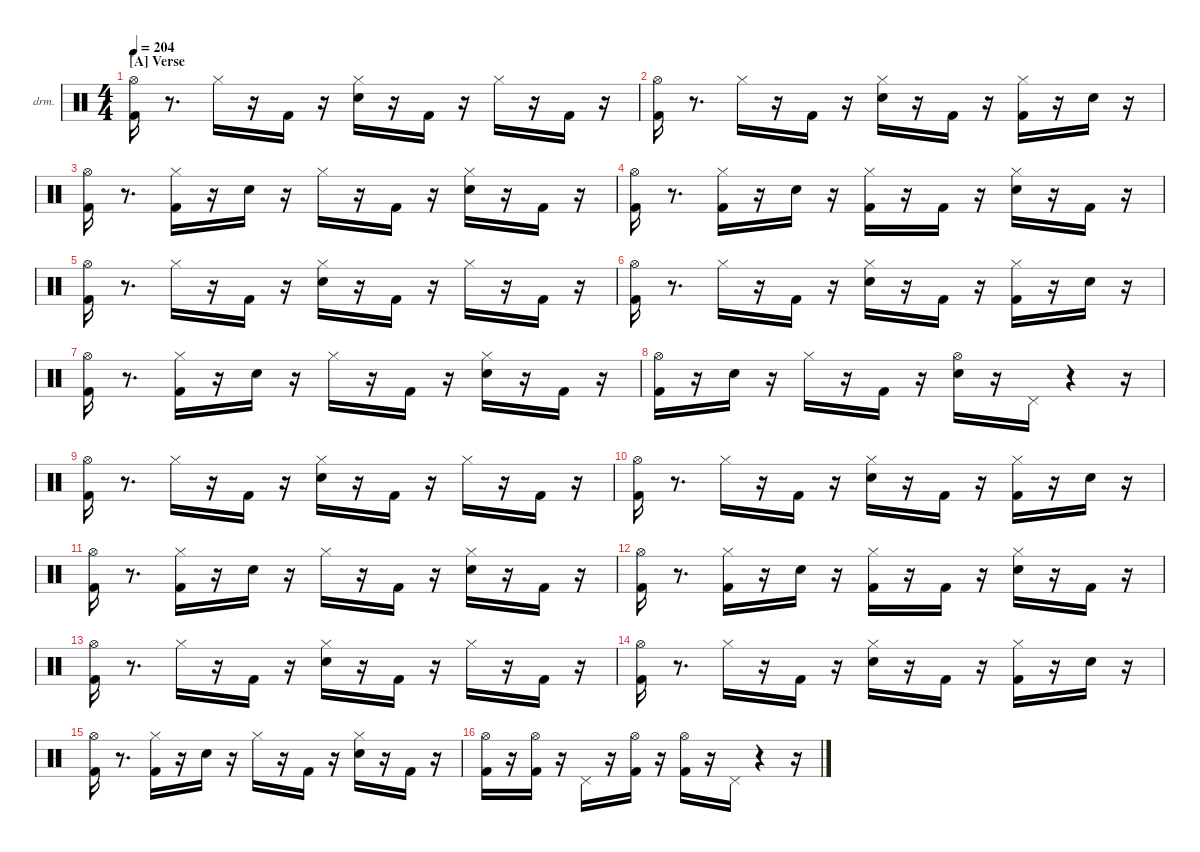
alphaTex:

\hideDynamics
\bracketExtendMode nobrackets
\firstSystemTrackNameOrientation horizontal
\track ("drums" "drm.") {instrument percussion}
\staff {score}
\articulation defaults
\ts (4 4)
\section ("A" "Verse")
\tempo 204
\clef neutral
\ks aminor
("Kick (hit) 2" "Hi-Hat (open)"{acc #}).16{dy ff beam Down} r.8{d beam Down} "Hi-Hat (closed)"{acc #}.16{dy f beam Down} r.16{beam Down} "Kick (hit) 2".16{beam Down} r.16{beam Down} ("Snare (hit) 2" "Hi-Hat (closed)"{acc #}).16{dy ff beam Down} r.16{beam Down} "Kick (hit) 2".16{beam Down} r.16{beam Down} "Hi-Hat (closed)"{acc #}.16{dy f beam Down} r.16{beam Down} "Kick (hit) 2".16{dy mf beam Down} r.16{beam Down} |
("Kick (hit) 2" "Hi-Hat (open)"{acc #}).16{dy fff beam Down} r.8{d beam Down} "Hi-Hat (closed)"{acc #}.16{dy f beam Down} r.16{beam Down} "Kick (hit) 2".16{dy ff beam Down} r.16{beam Down} ("Snare (hit) 2" "Hi-Hat (closed)"{acc #}).16{beam Down} r.16{beam Down} "Kick (hit) 2".16{dy mf beam Down} r.16{beam Down} ("Kick (hit) 2" "Hi-Hat (closed)"{acc #}).16{dy fff beam Down} r.16{beam Down} "Snare (hit) 2".16{beam Down} r.16{beam Down} |
("Kick (hit) 2" "Hi-Hat (open)"{acc #}).16{dy ff beam Down} r.8{d beam Down} ("Kick (hit) 2" "Hi-Hat (closed)"{acc #}).16{beam Down} r.16{beam Down} "Snare (hit) 2".16{beam Down} r.16{beam Down} "Hi-Hat (closed)"{acc #}.16{beam Down} r.16{beam Down} "Kick (hit) 2".16{dy mf beam Down} r.16{beam Down} ("Snare (hit) 2" "Hi-Hat (closed)"{acc #}).16{dy ff beam Down} r.16{beam Down} "Kick (hit) 2".16{dy mf beam Down} r.16{beam Down} |
("Kick (hit) 2" "Hi-Hat (open)"{acc #}).16{dy fff beam Down} r.8{d beam Down} ("Kick (hit) 2" "Hi-Hat (closed)"{acc #}).16{dy ff beam Down} r.16{beam Down} "Snare (hit) 2".16{dy f beam Down} r.16{beam Down} ("Kick (hit) 2" "Hi-Hat (closed)"{acc #}).16{beam Down} r.16{beam Down} "Kick (hit) 2".16{dy ff beam Down} r.16{beam Down} ("Snare (hit) 2" "Hi-Hat (closed)"{acc #}).16{beam Down} r.16{beam Down} "Kick (hit) 2".16{dy mf beam Down} r.16{beam Down} |
("Kick (hit) 2" "Hi-Hat (open)"{acc #}).16{dy ff beam Down} r.8{d beam Down} "Hi-Hat (closed)"{acc #}.16{dy f beam Down} r.16{beam Down} "Kick (hit) 2".16{beam Down} r.16{beam Down} ("Snare (hit) 2" "Hi-Hat (closed)"{acc #}).16{dy ff beam Down} r.16{beam Down} "Kick (hit) 2".16{beam Down} r.16{beam Down} "Hi-Hat (closed)"{acc #}.16{dy f beam Down} r.16{beam Down} "Kick (hit) 2".16{dy mf beam Down} r.16{beam Down} |
("Kick (hit) 2" "Hi-Hat (open)"{acc #}).16{dy fff beam Down} r.8{d beam Down} "Hi-Hat (closed)"{acc #}.16{dy f beam Down} r.16{beam Down} "Kick (hit) 2".16{dy ff beam Down} r.16{beam Down} ("Snare (hit) 2" "Hi-Hat (closed)"{acc #}).16{beam Down} r.16{beam Down} "Kick (hit) 2".16{dy mf beam Down} r.16{beam Down} ("Kick (hit) 2" "Hi-Hat (closed)"{acc #}).16{dy fff beam Down} r.16{beam Down} "Snare (hit) 2".16{beam Down} r.16{beam Down} |
("Kick (hit) 2" "Hi-Hat (open)"{acc #}).16{dy ff beam Down} r.8{d beam Down} ("Kick (hit) 2" "Hi-Hat (closed)"{acc #}).16{beam Down} r.16{beam Down} "Snare (hit) 2".16{beam Down} r.16{beam Down} "Hi-Hat (closed)"{acc #}.16{beam Down} r.16{beam Down} "Kick (hit) 2".16{dy mf beam Down} r.16{beam Down} ("Snare (hit) 2" "Hi-Hat (closed)"{acc #}).16{dy ff beam Down} r.16{beam Down} "Kick (hit) 2".16{dy mf beam Down} r.16{beam Down} |
("Kick (hit) 2" "Hi-Hat (open)"{acc #}).16{dy fff beam Down} r.16{beam Down} "Snare (hit) 2".16{dy ff beam Down} r.16{beam Down} "Hi-Hat (closed)"{acc #}.16{dy f beam Down} r.16{beam Down} "Kick (hit) 2".16{dy ff beam Down} r.16{beam Down} ("Snare (hit) 2" "Hi-Hat (open)"{acc #}).16{beam Down} r.16{beam Down} "Pedal Hi-Hat (hit)"{acc #}.16{beam Down} r.4{beam Down} r.16{beam Down} |
("Kick (hit) 2" "Hi-Hat (open)"{acc #}).16{beam Down} r.8{d beam Down} "Hi-Hat (closed)"{acc #}.16{dy f beam Down} r.16{beam Down} "Kick (hit) 2".16{beam Down} r.16{beam Down} ("Snare (hit) 2" "Hi-Hat (closed)"{acc #}).16{dy ff beam Down} r.16{beam Down} "Kick (hit) 2".16{beam Down} r.16{beam Down} "Hi-Hat (closed)"{acc #}.16{dy f beam Down} r.16{beam Down} "Kick (hit) 2".16{dy mf beam Down} r.16{beam Down} |
("Kick (hit) 2" "Hi-Hat (open)"{acc #}).16{dy fff beam Down} r.8{d beam Down} "Hi-Hat (closed)"{acc #}.16{dy f beam Down} r.16{beam Down} "Kick (hit) 2".16{dy ff beam Down} r.16{beam Down} ("Snare (hit) 2" "Hi-Hat (closed)"{acc #}).16{beam Down} r.16{beam Down} "Kick (hit) 2".16{dy mf beam Down} r.16{beam Down} ("Kick (hit) 2" "Hi-Hat (closed)"{acc #}).16{dy fff beam Down} r.16{beam Down} "Snare (hit) 2".16{beam Down} r.16{beam Down} |
("Kick (hit) 2" "Hi-Hat (open)"{acc #}).16{dy ff beam Down} r.8{d beam Down} ("Kick (hit) 2" "Hi-Hat (closed)"{acc #}).16{beam Down} r.16{beam Down} "Snare (hit) 2".16{beam Down} r.16{beam Down} "Hi-Hat (closed)"{acc #}.16{beam Down} r.16{beam Down} "Kick (hit) 2".16{dy mf beam Down} r.16{beam Down} ("Snare (hit) 2" "Hi-Hat (closed)"{acc #}).16{dy ff beam Down} r.16{beam Down} "Kick (hit) 2".16{dy mf beam Down} r.16{beam Down} |
("Kick (hit) 2" "Hi-Hat (open)"{acc #}).16{dy fff beam Down} r.8{d beam Down} ("Kick (hit) 2" "Hi-Hat (closed)"{acc #}).16{dy ff beam Down} r.16{beam Down} "Snare (hit) 2".16{dy f beam Down} r.16{beam Down} ("Kick (hit) 2" "Hi-Hat (closed)"{acc #}).16{beam Down} r.16{beam Down} "Kick (hit) 2".16{dy ff beam Down} r.16{beam Down} ("Snare (hit) 2" "Hi-Hat (closed)"{acc #}).16{beam Down} r.16{beam Down} "Kick (hit) 2".16{dy mf beam Down} r.16{beam Down} |
("Kick (hit) 2" "Hi-Hat (open)"{acc #}).16{dy ff beam Down} r.8{d beam Down} "Hi-Hat (closed)"{acc #}.16{dy f beam Down} r.16{beam Down} "Kick (hit) 2".16{beam Down} r.16{beam Down} ("Snare (hit) 2" "Hi-Hat (closed)"{acc #}).16{dy ff beam Down} r.16{beam Down} "Kick (hit) 2".16{beam Down} r.16{beam Down} "Hi-Hat (closed)"{acc #}.16{dy f beam Down} r.16{beam Down} "Kick (hit) 2".16{dy mf beam Down} r.16{beam Down} |
("Kick (hit) 2" "Hi-Hat (open)"{acc #}).16{dy fff beam Down} r.8{d beam Down} "Hi-Hat (closed)"{acc #}.16{dy f beam Down} r.16{beam Down} "Kick (hit) 2".16{dy ff beam Down} r.16{beam Down} ("Snare (hit) 2" "Hi-Hat (closed)"{acc #}).16{beam Down} r.16{beam Down} "Kick (hit) 2".16{dy mf beam Down} r.16{beam Down} ("Kick (hit) 2" "Hi-Hat (closed)"{acc #}).16{dy fff beam Down} r.16{beam Down} "Snare (hit) 2".16{beam Down} r.16{beam Down} |
("Kick (hit) 2" "Hi-Hat (open)"{acc #}).16{dy ff beam Down} r.8{d beam Down} ("Kick (hit) 2" "Hi-Hat (closed)"{acc #}).16{beam Down} r.16{beam Down} "Snare (hit) 2".16{beam Down} r.16{beam Down} "Hi-Hat (closed)"{acc #}.16{beam Down} r.16{beam Down} "Kick (hit) 2".16{dy mf beam Down} r.16{beam Down} ("Snare (hit) 2" "Hi-Hat (closed)"{acc #}).16{dy ff beam Down} r.16{beam Down} "Kick (hit) 2".16{dy mf beam Down} r.16{beam Down} |
("Kick (hit) 2" "Hi-Hat (open)"{acc #}).16{dy f beam Down} r.16{beam Down} ("Kick (hit) 2" "Hi-Hat (open)"{acc #}).16{dy fff beam Down} r.16{beam Down} "Pedal Hi-Hat (hit)"{acc #}.16{dy ff beam Down} r.16{beam Down} ("Kick (hit) 2" "Hi-Hat (open)"{acc #}).16{dy mf beam Down} r.16{beam Down} ("Kick (hit) 2" "Hi-Hat (open)"{acc #}).16{dy ff beam Down} r.16{beam Down} "Pedal Hi-Hat (hit)"{acc #}.16{beam Down} r.4{beam Down} r.16{beam Down}
